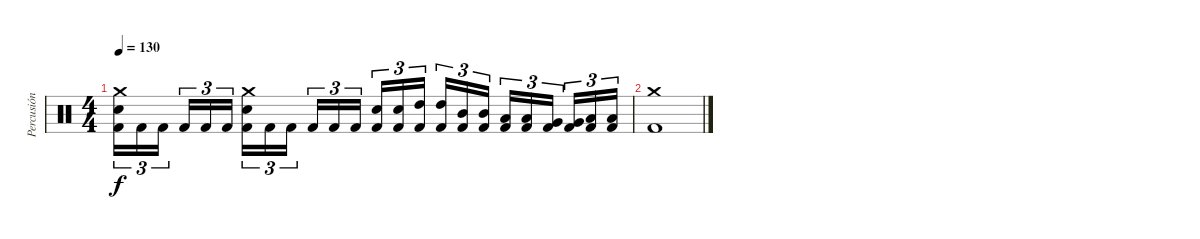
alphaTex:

\track ("Percusión" "Percusión") {instrument percussion}
\staff {score}
\articulation defaults
\ts (4 4)
\tempo 130
\clef neutral
\ks c
("Crash medium (hit)" "Electric Snare (hit)" "Kick (hit) 2").16{tu (3 2) dy f} "Kick (hit) 2".16{tu (3 2)} "Kick (hit) 2".16{tu (3 2)} "Kick (hit) 2".16{tu (3 2)} "Kick (hit) 2".16{tu (3 2)} "Kick (hit) 2".16{tu (3 2)} ("Crash medium (hit)" "Electric Snare (hit)" "Kick (hit) 2").16{tu (3 2)} "Kick (hit) 2".16{tu (3 2)} "Kick (hit) 2".16{tu (3 2)} "Kick (hit) 2".16{tu (3 2)} "Kick (hit) 2".16{tu (3 2)} "Kick (hit) 2".16{tu (3 2)} ("Electric Snare (hit)" "Kick (hit) 2").16{tu (3 2)} ("Electric Snare (hit)" "Kick (hit) 2").16{tu (3 2)} ("High Tom (hit)" "Kick (hit) 2").16{tu (3 2)} ("High Tom (hit)" "Kick (hit) 2").16{tu (3 2)} ("Mid Tom (hit)" "Kick (hit) 2").16{tu (3 2)} ("Mid Tom (hit)" "Kick (hit) 2").16{tu (3 2)} ("Low Tom (hit)" "Kick (hit) 2").16{tu (3 2)} ("Low Tom (hit)" "Kick (hit) 2").16{tu (3 2)} ("Very Low Tom (hit)" "Kick (hit) 2").16{tu (3 2)} ("Very Low Tom (hit)" "Kick (hit) 2").16{tu (3 2)} ("Low Floor Tom (hit)" "Kick (hit) 2").16{tu (3 2)} ("Low Floor Tom (hit)" "Kick (hit) 2").16{tu (3 2)} |
("Crash medium (hit)" "Kick (hit) 2").1
